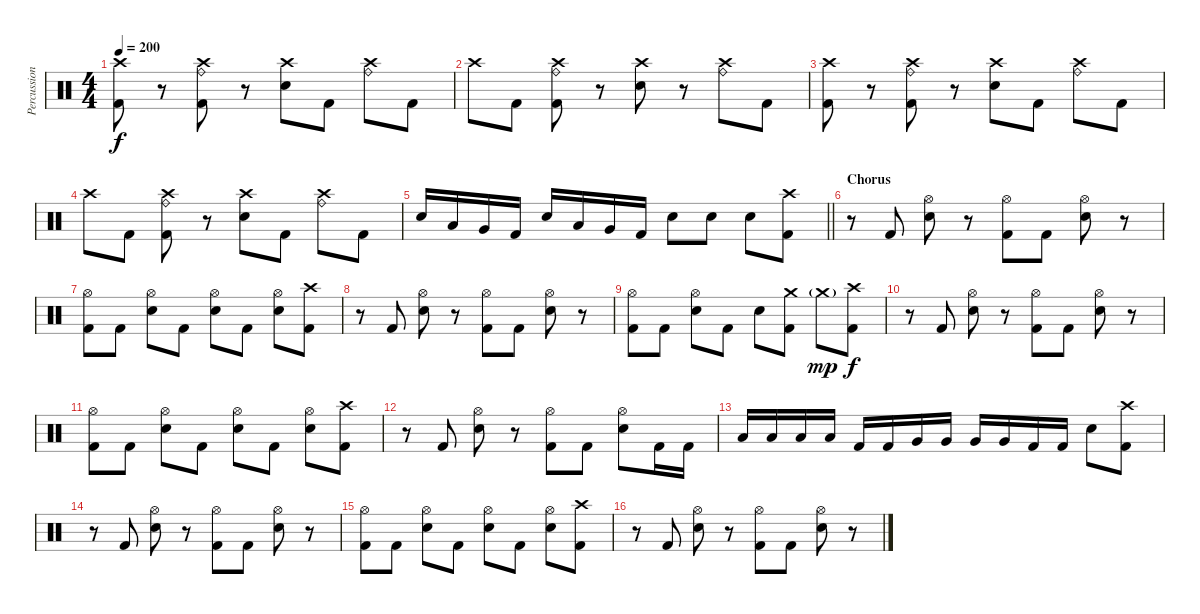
\track ("Percussion" "Percussion") {instrument percussion}
\staff {score}
\articulation defaults
\ts (4 4)
\tempo 200
\clef neutral
\ks c
("Crash high (hit)" "Kick (hit) 2").8{dy f} r.8 ("Crash high (hit)" "Ride (bell)" "Kick (hit) 2").8 r.8 ("Crash high (hit)" "Electric Snare (hit)").8 "Kick (hit) 2".8 ("Crash high (hit)" "Ride (bell)").8 "Kick (hit) 2".8 |
"Crash high (hit)".8 "Kick (hit) 2".8 ("Crash high (hit)" "Ride (bell)" "Kick (hit) 2").8 r.8 ("Crash high (hit)" "Electric Snare (hit)").8 r.8 ("Crash high (hit)" "Ride (bell)").8 "Kick (hit) 2".8 |
("Crash high (hit)" "Kick (hit) 2").8 r.8 ("Crash high (hit)" "Ride (bell)" "Kick (hit) 2").8 r.8 ("Crash high (hit)" "Electric Snare (hit)").8 "Kick (hit) 2".8 ("Crash high (hit)" "Ride (bell)").8 "Kick (hit) 2".8 |
"Crash high (hit)".8 "Kick (hit) 2".8 ("Crash high (hit)" "Ride (bell)" "Kick (hit) 2").8 r.8 ("Crash high (hit)" "Electric Snare (hit)").8 "Kick (hit) 2".8 ("Crash high (hit)" "Ride (bell)").8 "Kick (hit) 2".8 |
\barLineRight lightlight "Electric Snare (hit)".16 "Low Tom (hit)".16 "Very Low Tom (hit)".16 "Kick (hit) 2".16 "Electric Snare (hit)".16 "Low Tom (hit)".16 "Very Low Tom (hit)".16 "Kick (hit) 2".16 "Electric Snare (hit)".8 "Electric Snare (hit)".8 "Electric Snare (hit)".8
("Crash high (hit)" "Kick (hit) 2").8 |
\section ("" "Chorus")
r.8 "Kick (hit) 2".8 ("Hi-Hat (open)" "Electric Snare (hit)").8 r.8 ("Hi-Hat (open)" "Kick (hit) 2").8 "Kick (hit) 2".8 ("Hi-Hat (open)" "Electric Snare (hit)").8 r.8 |
("Hi-Hat (open)" "Kick (hit) 2").8 "Kick (hit) 2".8 ("Hi-Hat (open)" "Electric Snare (hit)").8 "Kick (hit) 2".8 ("Hi-Hat (open)" "Electric Snare (hit)").8 "Kick (hit) 2".8 ("Hi-Hat (open)" "Electric Snare (hit)").8 ("Crash high (hit)" "Kick (hit) 2").8 |
r.8 "Kick (hit) 2".8 ("Hi-Hat (open)" "Electric Snare (hit)").8 r.8 ("Hi-Hat (open)" "Kick (hit) 2").8 "Kick (hit) 2".8 ("Hi-Hat (open)" "Electric Snare (hit)").8 r.8 |
("Hi-Hat (open)" "Kick (hit) 2").8 "Kick (hit) 2".8 ("Hi-Hat (open)" "Electric Snare (hit)").8 "Kick (hit) 2".8 "Electric Snare (hit)".8 ("Crash medium (hit)" "Kick (hit) 2").8 "Crash medium (hit)"{g}.8{dy mp volume 0} ("Crash high (hit)" "Kick (hit) 2").8{dy f volume 13} |
r.8 "Kick (hit) 2".8 ("Hi-Hat (open)" "Electric Snare (hit)").8 r.8 ("Hi-Hat (open)" "Kick (hit) 2").8 "Kick (hit) 2".8 ("Hi-Hat (open)" "Electric Snare (hit)").8 r.8 |
("Hi-Hat (open)" "Kick (hit) 2").8 "Kick (hit) 2".8 ("Hi-Hat (open)" "Electric Snare (hit)").8 "Kick (hit) 2".8 ("Hi-Hat (open)" "Electric Snare (hit)").8 "Kick (hit) 2".8 ("Hi-Hat (open)" "Electric Snare (hit)").8 ("Crash high (hit)" "Kick (hit) 2").8 |
r.8 "Kick (hit) 2".8 ("Hi-Hat (open)" "Electric Snare (hit)").8 r.8 ("Hi-Hat (open)" "Kick (hit) 2").8 "Kick (hit) 2".8 ("Hi-Hat (open)" "Electric Snare (hit)").8 "Kick (hit) 2".16 "Kick (hit) 2".16 |
"Low Tom (hit)".16 "Low Tom (hit)".16 "Low Tom (hit)".16 "Low Tom (hit)".16 "Kick (hit) 2".16 "Kick (hit) 2".16 "Very Low Tom (hit)".16 "Very Low Tom (hit)".16 "Very Low Tom (hit)".16 "Very Low Tom (hit)".16 "Kick (hit) 2".16 "Kick (hit) 2".16 "Electric Snare (hit)".8 ("Crash high (hit)" "Kick (hit) 2").8 |
r.8 "Kick (hit) 2".8 ("Hi-Hat (open)" "Electric Snare (hit)").8 r.8 ("Hi-Hat (open)" "Kick (hit) 2").8 "Kick (hit) 2".8 ("Hi-Hat (open)" "Electric Snare (hit)").8 r.8 |
("Hi-Hat (open)" "Kick (hit) 2").8 "Kick (hit) 2".8 ("Hi-Hat (open)" "Electric Snare (hit)").8 "Kick (hit) 2".8 ("Hi-Hat (open)" "Electric Snare (hit)").8 "Kick (hit) 2".8 ("Hi-Hat (open)" "Electric Snare (hit)").8 ("Crash high (hit)" "Kick (hit) 2").8 |
r.8 "Kick (hit) 2".8 ("Hi-Hat (open)" "Electric Snare (hit)").8 r.8 ("Hi-Hat (open)" "Kick (hit) 2").8 "Kick (hit) 2".8 ("Hi-Hat (open)" "Electric Snare (hit)").8 r.8
